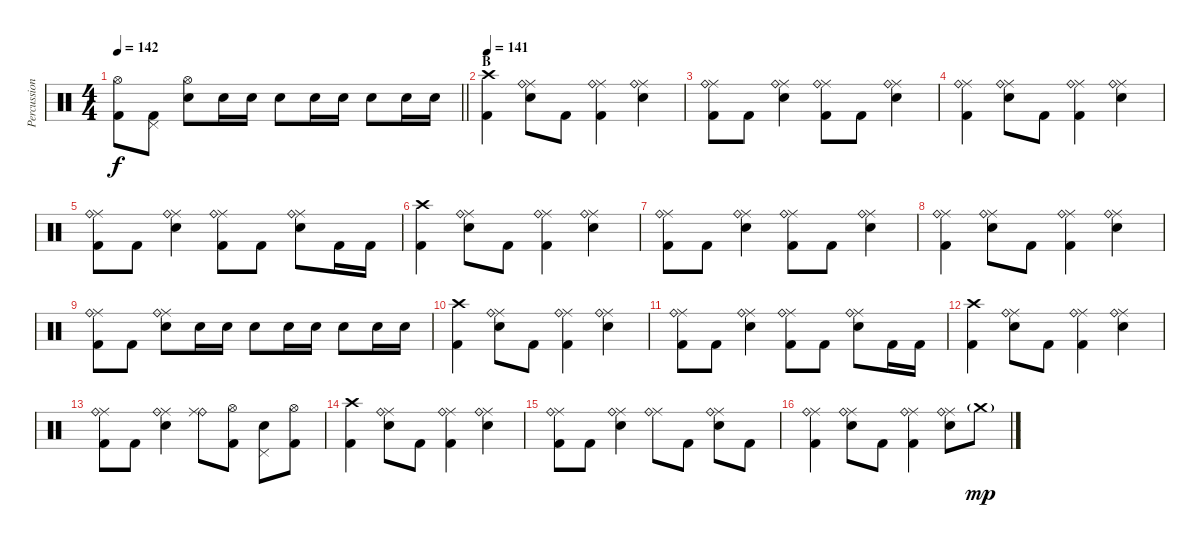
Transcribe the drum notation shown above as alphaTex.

\track ("Percussion" "Percussion") {instrument percussion}
\staff {score}
\articulation defaults
\ts (4 4)
\tempo 142
\clef neutral
\barLineRight lightlight
\ks c
("Hi-Hat (open)" "Kick (hit) 2").8{dy f} ("Pedal Hi-Hat (hit)" "Kick (hit) 2").8 ("Hi-Hat (open)" "Snare (hit) 2").8 "Snare (hit) 2".16 "Snare (hit) 2".16 "Snare (hit) 2".8 "Snare (hit) 2".16 "Snare (hit) 2".16 "Snare (hit) 2".8 "Snare (hit) 2".16 "Snare (hit) 2".16 |
\section ("" "B")
\tempo 141
("Crash high (hit)" "Kick (hit) 2").4 ("Ride (middle)" "Ride (bell)" "Snare (hit) 2").8 "Kick (hit) 2".8 ("Ride (middle)" "Ride (bell)" "Kick (hit) 2").4 ("Ride (middle)" "Ride (bell)" "Snare (hit) 2").4 |
("Ride (middle)" "Ride (bell)" "Kick (hit) 2").8 "Kick (hit) 2".8 ("Ride (middle)" "Ride (bell)" "Snare (hit) 2").4 ("Ride (middle)" "Ride (bell)" "Kick (hit) 2").8 "Kick (hit) 2".8 ("Ride (middle)" "Ride (bell)" "Snare (hit) 2").4 |
("Ride (middle)" "Ride (bell)" "Kick (hit) 2").4 ("Ride (middle)" "Ride (bell)" "Snare (hit) 2").8 "Kick (hit) 2".8 ("Ride (middle)" "Ride (bell)" "Kick (hit) 2").4 ("Ride (middle)" "Ride (bell)" "Snare (hit) 2").4 |
("Ride (middle)" "Ride (bell)" "Kick (hit) 2").8 "Kick (hit) 2".8 ("Ride (middle)" "Ride (bell)" "Snare (hit) 2").4 ("Ride (middle)" "Ride (bell)" "Kick (hit) 2").8 "Kick (hit) 2".8 ("Ride (middle)" "Ride (bell)" "Snare (hit) 2").8 "Kick (hit) 2".16 "Kick (hit) 2".16 |
("Crash high (hit)" "Kick (hit) 2").4 ("Ride (middle)" "Ride (bell)" "Snare (hit) 2").8 "Kick (hit) 2".8 ("Ride (middle)" "Ride (bell)" "Kick (hit) 2").4 ("Ride (middle)" "Ride (bell)" "Snare (hit) 2").4 |
("Ride (middle)" "Ride (bell)" "Kick (hit) 2").8 "Kick (hit) 2".8 ("Ride (middle)" "Ride (bell)" "Snare (hit) 2").4 ("Ride (middle)" "Ride (bell)" "Kick (hit) 2").8 "Kick (hit) 2".8 ("Ride (middle)" "Ride (bell)" "Snare (hit) 2").4 |
("Ride (middle)" "Ride (bell)" "Kick (hit) 2").4 ("Ride (middle)" "Ride (bell)" "Snare (hit) 2").8 "Kick (hit) 2".8 ("Ride (middle)" "Ride (bell)" "Kick (hit) 2").4 ("Ride (middle)" "Ride (bell)" "Snare (hit) 2").4 |
("Ride (middle)" "Ride (bell)" "Kick (hit) 2").8 "Kick (hit) 2".8 ("Ride (middle)" "Ride (bell)" "Snare (hit) 2").8 "Snare (hit) 2".16 "Snare (hit) 2".16 "Snare (hit) 2".8 "Snare (hit) 2".16 "Snare (hit) 2".16 "Snare (hit) 2".8 "Snare (hit) 2".16 "Snare (hit) 2".16 |
("Crash high (hit)" "Kick (hit) 2").4 ("Ride (middle)" "Ride (bell)" "Snare (hit) 2").8 "Kick (hit) 2".8 ("Ride (middle)" "Ride (bell)" "Kick (hit) 2").4 ("Ride (middle)" "Ride (bell)" "Snare (hit) 2").4 |
("Ride (middle)" "Ride (bell)" "Kick (hit) 2").8 "Kick (hit) 2".8 ("Ride (middle)" "Ride (bell)" "Snare (hit) 2").4 ("Ride (middle)" "Ride (bell)" "Kick (hit) 2").8 "Kick (hit) 2".8 ("Ride (middle)" "Ride (bell)" "Snare (hit) 2").8 "Kick (hit) 2".16 "Kick (hit) 2".16 |
("Crash high (hit)" "Kick (hit) 2").4 ("Ride (middle)" "Ride (bell)" "Snare (hit) 2").8 "Kick (hit) 2".8 ("Ride (middle)" "Ride (bell)" "Kick (hit) 2").4 ("Ride (middle)" "Ride (bell)" "Snare (hit) 2").4 |
("Ride (middle)" "Ride (bell)" "Kick (hit) 2").8 "Kick (hit) 2".8 ("Ride (middle)" "Ride (bell)" "Snare (hit) 2").4 ("Ride (bell)" "Ride (middle)").8 ("Hi-Hat (open)" "Kick (hit) 2").8 ("Pedal Hi-Hat (hit)" "Snare (hit) 2").8 ("Hi-Hat (open)" "Kick (hit) 2").8 |
("Crash high (hit)" "Kick (hit) 2").4 ("Ride (middle)" "Ride (bell)" "Snare (hit) 2").8 "Kick (hit) 2".8 ("Ride (middle)" "Ride (bell)" "Kick (hit) 2").4 ("Ride (middle)" "Ride (bell)" "Snare (hit) 2").4 |
("Ride (middle)" "Ride (bell)" "Kick (hit) 2").8 "Kick (hit) 2".8 ("Ride (middle)" "Ride (bell)" "Snare (hit) 2").4 ("Ride (middle)" "Ride (bell)").8 "Kick (hit) 2".8 ("Ride (middle)" "Ride (bell)" "Snare (hit) 2").8 "Kick (hit) 2".8 |
("Ride (middle)" "Ride (bell)" "Kick (hit) 2").4 ("Ride (middle)" "Ride (bell)" "Snare (hit) 2").8 "Kick (hit) 2".8 ("Ride (middle)" "Ride (bell)" "Kick (hit) 2").4 ("Ride (middle)" "Ride (bell)" "Snare (hit) 2").8 "Crash medium (hit)"{g}.8{dy mp}
